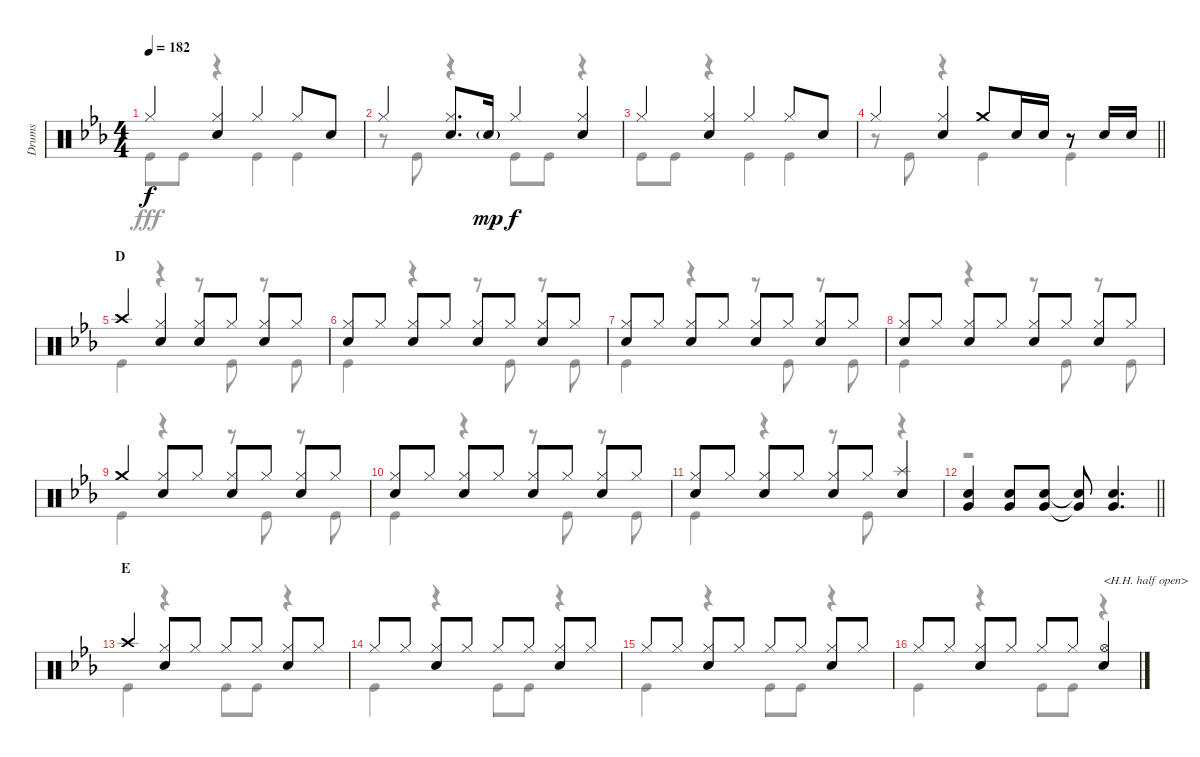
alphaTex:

\track ("Drums" "Drums") {instrument percussion}
\staff {score}
\articulation defaults
\voice
\ts (4 4)
\tempo 182
\clef neutral
\ks eb "Hi-Hat (closed)".4{dy f}
("Hi-Hat (closed)" "Snare (hit) 2").4 "Hi-Hat (closed)".4 "Hi-Hat (closed)".8 "Snare (hit) 2".8 |
"Hi-Hat (closed)".4 ("Hi-Hat (closed)" "Snare (hit) 2").8{d} "Snare (hit) 2"{g}.16{dy mp} "Hi-Hat (closed)".4{dy f} ("Hi-Hat (closed)" "Snare (hit) 2").4 |
"Hi-Hat (closed)".4 ("Hi-Hat (closed)" "Snare (hit) 2").4 "Hi-Hat (closed)".4 "Hi-Hat (closed)".8 "Snare (hit) 2".8 |
\barLineRight lightlight "Hi-Hat (closed)".4
("Hi-Hat (closed)" "Snare (hit) 2").4 "Crash medium (hit)".8 "Snare (hit) 2".16 "Snare (hit) 2".16 r.8 "Snare (hit) 2".16 "Snare (hit) 2".16 |
\section ("" "D")
"Crash high (hit)".4 ("Hi-Hat (closed)" "Snare (hit) 2").4 ("Hi-Hat (closed)" "Snare (hit) 2").8 "Hi-Hat (closed)".8 ("Hi-Hat (closed)" "Snare (hit) 2").8 "Hi-Hat (closed)".8 |
("Hi-Hat (closed)" "Snare (hit) 2").8 "Hi-Hat (closed)".8 ("Hi-Hat (closed)" "Snare (hit) 2").8 "Hi-Hat (closed)".8 ("Hi-Hat (closed)" "Snare (hit) 2").8 "Hi-Hat (closed)".8 ("Hi-Hat (closed)" "Snare (hit) 2").8 "Hi-Hat (closed)".8 |
("Hi-Hat (closed)" "Snare (hit) 2").8 "Hi-Hat (closed)".8 ("Hi-Hat (closed)" "Snare (hit) 2").8 "Hi-Hat (closed)".8 ("Hi-Hat (closed)" "Snare (hit) 2").8 "Hi-Hat (closed)".8 ("Hi-Hat (closed)" "Snare (hit) 2").8 "Hi-Hat (closed)".8 |
("Hi-Hat (closed)" "Snare (hit) 2").8 "Hi-Hat (closed)".8 ("Hi-Hat (closed)" "Snare (hit) 2").8 "Hi-Hat (closed)".8 ("Hi-Hat (closed)" "Snare (hit) 2").8 "Hi-Hat (closed)".8 ("Hi-Hat (closed)" "Snare (hit) 2").8 "Hi-Hat (closed)".8 |
"Crash medium (hit)".4 ("Hi-Hat (closed)" "Snare (hit) 2").8 "Hi-Hat (closed)".8 ("Hi-Hat (closed)" "Snare (hit) 2").8 "Hi-Hat (closed)".8 ("Hi-Hat (closed)" "Snare (hit) 2").8 "Hi-Hat (closed)".8 |
("Hi-Hat (closed)" "Snare (hit) 2").8 "Hi-Hat (closed)".8 ("Hi-Hat (closed)" "Snare (hit) 2").8 "Hi-Hat (closed)".8 ("Hi-Hat (closed)" "Snare (hit) 2").8 "Hi-Hat (closed)".8 ("Hi-Hat (closed)" "Snare (hit) 2").8 "Hi-Hat (closed)".8 |
("Hi-Hat (closed)" "Snare (hit) 2").8 "Hi-Hat (closed)".8 ("Hi-Hat (closed)" "Snare (hit) 2").8 "Hi-Hat (closed)".8 ("Hi-Hat (closed)" "Snare (hit) 2").8 "Hi-Hat (closed)".8 ("Splash (hit)" "Snare (hit) 2").4 |
\barLineRight lightlight
("Snare (hit) 2" "Very Low Tom (hit)").4 ("Snare (hit) 2" "Very Low Tom (hit)").8 ("Snare (hit) 2" "Very Low Tom (hit)").8 ("Snare (hit) 2"{t} "Very Low Tom (hit)"{t}).8 ("Snare (hit) 2" "Very Low Tom (hit)").4{d} |
\section ("" "E")
"Crash high (hit)".4 ("Hi-Hat (closed)" "Snare (hit) 2").8 "Hi-Hat (closed)".8 "Hi-Hat (closed)".8 "Hi-Hat (closed)".8 ("Hi-Hat (closed)" "Snare (hit) 2").8 "Hi-Hat (closed)".8 |
"Hi-Hat (closed)".8 "Hi-Hat (closed)".8 ("Hi-Hat (closed)" "Snare (hit) 2").8 "Hi-Hat (closed)".8 "Hi-Hat (closed)".8 "Hi-Hat (closed)".8 ("Hi-Hat (closed)" "Snare (hit) 2").8 "Hi-Hat (closed)".8 |
"Hi-Hat (closed)".8 "Hi-Hat (closed)".8 ("Hi-Hat (closed)" "Snare (hit) 2").8 "Hi-Hat (closed)".8 "Hi-Hat (closed)".8 "Hi-Hat (closed)".8 ("Hi-Hat (closed)" "Snare (hit) 2").8 "Hi-Hat (closed)".8 |
"Hi-Hat (closed)".8 "Hi-Hat (closed)".8 ("Hi-Hat (closed)" "Snare (hit) 2").8 "Hi-Hat (closed)".8 "Hi-Hat (closed)".8 "Hi-Hat (closed)".8 ("Hi-Hat (open)" "Snare (hit) 2").4{txt "<H.H. half open>"}
\voice
\clef neutral
\ottava regular
\simile none
\ks eb "Kick (hit)".8{dy fff} "Kick (hit)".8
r.4 "Kick (hit)".4 "Kick (hit)".4 |
r.8 "Kick (hit)".8 r.4 "Kick (hit)".8 "Kick (hit)".8 r.4 |
"Kick (hit)".8 "Kick (hit)".8 r.4 "Kick (hit)".4 "Kick (hit)".4 |
\barLineRight lightlight
r.8 "Kick (hit)".8 r.4 "Kick (hit)".4 "Kick (hit)".4 |
"Kick (hit)".4 r.4 r.8 "Kick (hit)".8 r.8 "Kick (hit)".8 |
"Kick (hit)".4 r.4 r.8 "Kick (hit)".8 r.8 "Kick (hit)".8 |
"Kick (hit)".4 r.4 r.8 "Kick (hit)".8 r.8 "Kick (hit)".8 |
"Kick (hit)".4 r.4 r.8 "Kick (hit)".8 r.8 "Kick (hit)".8 |
"Kick (hit)".4 r.4 r.8 "Kick (hit)".8 r.8 "Kick (hit)".8 |
"Kick (hit)".4 r.4 r.8 "Kick (hit)".8 r.8 "Kick (hit)".8 |
"Kick (hit)".4 r.4 r.8 "Kick (hit)".8 r.4 |
\barLineRight lightlight
r.1 |
"Kick (hit)".4 r.4 "Kick (hit)".8 "Kick (hit)".8 r.4 |
"Kick (hit)".4 r.4 "Kick (hit)".8 "Kick (hit)".8 r.4 |
"Kick (hit)".4 r.4 "Kick (hit)".8 "Kick (hit)".8 r.4 |
"Kick (hit)".4 r.4 "Kick (hit)".8 "Kick (hit)".8 r.4
